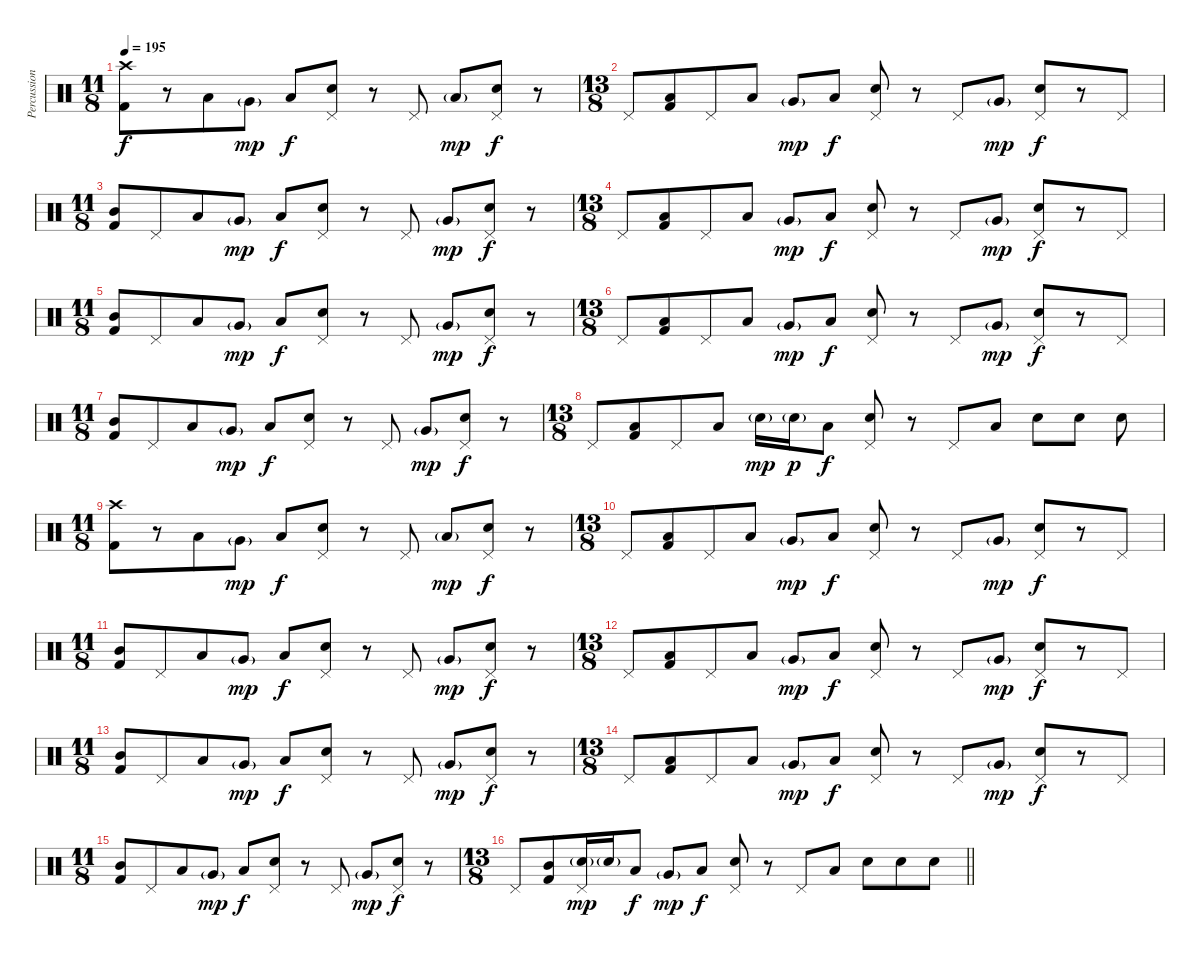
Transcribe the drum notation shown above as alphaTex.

\track ("Percussion" "Percussion") {instrument percussion bank 237}
\staff {score}
\articulation defaults
\ts (11 8)
\section ("" "")
\tempo 195
\clef neutral
\ks c
("Crash high (hit)" "Kick (hit) 2").8{dy f beam merge} r.8{beam merge} "Low Tom (hit)".8 "Very Low Tom (hit)"{g}.8{dy mp} "Low Floor Tom (hit)".8{dy f} ("Pedal Hi-Hat (hit)" "Electric Snare (hit)").8 r.8 "Pedal Hi-Hat (hit)".8 "Low Floor Tom (hit)"{g}.8{dy mp} ("Pedal Hi-Hat (hit)" "Electric Snare (hit)").8{dy f beam merge} r.8 |
\ts (13 8)
"Pedal Hi-Hat (hit)".8 ("Low Floor Tom (hit)" "Kick (hit) 2").8{beam merge} "Pedal Hi-Hat (hit)".8{beam merge} "Low Tom (hit)".8 "Very Low Tom (hit)"{g}.8{dy mp} "Low Floor Tom (hit)".8{dy f} ("Pedal Hi-Hat (hit)" "Electric Snare (hit)").8 r.8{beam merge} "Pedal Hi-Hat (hit)".8 "Very Low Tom (hit)"{g}.8{dy mp} ("Pedal Hi-Hat (hit)" "Electric Snare (hit)").8{dy f beam merge} r.8 "Pedal Hi-Hat (hit)".8 |
\ts (11 8)
("Mid Tom (hit)" "Kick (hit) 2").8{beam merge} "Pedal Hi-Hat (hit)".8{beam merge} "Low Tom (hit)".8 "Very Low Tom (hit)"{g}.8{dy mp} "Low Floor Tom (hit)".8{dy f} ("Pedal Hi-Hat (hit)" "Electric Snare (hit)").8 r.8{beam merge} "Pedal Hi-Hat (hit)".8 "Very Low Tom (hit)"{g}.8{dy mp} ("Pedal Hi-Hat (hit)" "Electric Snare (hit)").8{dy f beam merge} r.8 |
\ts (13 8)
"Pedal Hi-Hat (hit)".8 ("Low Floor Tom (hit)" "Kick (hit) 2").8{beam merge} "Pedal Hi-Hat (hit)".8{beam merge} "Low Tom (hit)".8 "Very Low Tom (hit)"{g}.8{dy mp} "Low Floor Tom (hit)".8{dy f} ("Pedal Hi-Hat (hit)" "Electric Snare (hit)").8 r.8{beam merge} "Pedal Hi-Hat (hit)".8 "Very Low Tom (hit)"{g}.8{dy mp} ("Pedal Hi-Hat (hit)" "Electric Snare (hit)").8{dy f beam merge} r.8 "Pedal Hi-Hat (hit)".8 |
\ts (11 8)
("Mid Tom (hit)" "Kick (hit) 2").8{beam merge} "Pedal Hi-Hat (hit)".8{beam merge} "Low Tom (hit)".8 "Very Low Tom (hit)"{g}.8{dy mp} "Low Floor Tom (hit)".8{dy f} ("Pedal Hi-Hat (hit)" "Electric Snare (hit)").8 r.8{beam merge} "Pedal Hi-Hat (hit)".8 "Very Low Tom (hit)"{g}.8{dy mp} ("Pedal Hi-Hat (hit)" "Electric Snare (hit)").8{dy f beam merge} r.8 |
\ts (13 8)
"Pedal Hi-Hat (hit)".8 ("Low Floor Tom (hit)" "Kick (hit) 2").8{beam merge} "Pedal Hi-Hat (hit)".8{beam merge} "Low Tom (hit)".8 "Very Low Tom (hit)"{g}.8{dy mp} "Low Floor Tom (hit)".8{dy f} ("Pedal Hi-Hat (hit)" "Electric Snare (hit)").8 r.8{beam merge} "Pedal Hi-Hat (hit)".8 "Very Low Tom (hit)"{g}.8{dy mp} ("Pedal Hi-Hat (hit)" "Electric Snare (hit)").8{dy f beam merge} r.8{beam merge} "Pedal Hi-Hat (hit)".8 |
\ts (11 8)
("Mid Tom (hit)" "Kick (hit) 2").8{beam merge} "Pedal Hi-Hat (hit)".8{beam merge} "Low Tom (hit)".8 "Very Low Tom (hit)"{g}.8{dy mp} "Low Floor Tom (hit)".8{dy f} ("Pedal Hi-Hat (hit)" "Electric Snare (hit)").8 r.8{beam merge} "Pedal Hi-Hat (hit)".8 "Very Low Tom (hit)"{g}.8{dy mp} ("Pedal Hi-Hat (hit)" "Electric Snare (hit)").8{dy f beam merge} r.8 |
\ts (13 8)
"Pedal Hi-Hat (hit)".8 ("Low Floor Tom (hit)" "Kick (hit) 2").8{beam merge} "Pedal Hi-Hat (hit)".8{beam merge} "Low Tom (hit)".8 "Electric Snare (hit)"{g}.16{dy mp} "Electric Snare (hit)"{g}.16{dy p} "Low Floor Tom (hit)".8{dy f} ("Pedal Hi-Hat (hit)" "Electric Snare (hit)").8 r.8{beam merge} "Pedal Hi-Hat (hit)".8 "Low Floor Tom (hit)".8 "Electric Snare (hit)".8{beam merge} "Electric Snare (hit)".8 "Electric Snare (hit)".8 |
\ts (11 8)
("Crash high (hit)" "Kick (hit) 2").8{beam merge} r.8{beam merge} "Low Tom (hit)".8 "Very Low Tom (hit)"{g}.8{dy mp} "Low Floor Tom (hit)".8{dy f} ("Pedal Hi-Hat (hit)" "Electric Snare (hit)").8 r.8 "Pedal Hi-Hat (hit)".8 "Low Floor Tom (hit)"{g}.8{dy mp} ("Pedal Hi-Hat (hit)" "Electric Snare (hit)").8{dy f beam merge} r.8 |
\ts (13 8)
"Pedal Hi-Hat (hit)".8 ("Low Floor Tom (hit)" "Kick (hit) 2").8{beam merge} "Pedal Hi-Hat (hit)".8{beam merge} "Low Tom (hit)".8 "Very Low Tom (hit)"{g}.8{dy mp} "Low Floor Tom (hit)".8{dy f} ("Pedal Hi-Hat (hit)" "Electric Snare (hit)").8 r.8{beam merge} "Pedal Hi-Hat (hit)".8 "Very Low Tom (hit)"{g}.8{dy mp} ("Pedal Hi-Hat (hit)" "Electric Snare (hit)").8{dy f beam merge} r.8 "Pedal Hi-Hat (hit)".8 |
\ts (11 8)
("Mid Tom (hit)" "Kick (hit) 2").8{beam merge} "Pedal Hi-Hat (hit)".8{beam merge} "Low Tom (hit)".8 "Very Low Tom (hit)"{g}.8{dy mp} "Low Floor Tom (hit)".8{dy f} ("Pedal Hi-Hat (hit)" "Electric Snare (hit)").8 r.8{beam merge} "Pedal Hi-Hat (hit)".8 "Very Low Tom (hit)"{g}.8{dy mp} ("Pedal Hi-Hat (hit)" "Electric Snare (hit)").8{dy f beam merge} r.8 |
\ts (13 8)
"Pedal Hi-Hat (hit)".8 ("Low Floor Tom (hit)" "Kick (hit) 2").8{beam merge} "Pedal Hi-Hat (hit)".8{beam merge} "Low Tom (hit)".8 "Very Low Tom (hit)"{g}.8{dy mp} "Low Floor Tom (hit)".8{dy f} ("Pedal Hi-Hat (hit)" "Electric Snare (hit)").8 r.8{beam merge} "Pedal Hi-Hat (hit)".8 "Very Low Tom (hit)"{g}.8{dy mp} ("Pedal Hi-Hat (hit)" "Electric Snare (hit)").8{dy f beam merge} r.8 "Pedal Hi-Hat (hit)".8 |
\ts (11 8)
("Mid Tom (hit)" "Kick (hit) 2").8{beam merge} "Pedal Hi-Hat (hit)".8{beam merge} "Low Tom (hit)".8 "Very Low Tom (hit)"{g}.8{dy mp} "Low Floor Tom (hit)".8{dy f} ("Pedal Hi-Hat (hit)" "Electric Snare (hit)").8 r.8{beam merge} "Pedal Hi-Hat (hit)".8 "Very Low Tom (hit)"{g}.8{dy mp} ("Pedal Hi-Hat (hit)" "Electric Snare (hit)").8{dy f beam merge} r.8 |
\ts (13 8)
"Pedal Hi-Hat (hit)".8 ("Low Floor Tom (hit)" "Kick (hit) 2").8{beam merge} "Pedal Hi-Hat (hit)".8{beam merge} "Low Tom (hit)".8 "Very Low Tom (hit)"{g}.8{dy mp} "Low Floor Tom (hit)".8{dy f} ("Pedal Hi-Hat (hit)" "Electric Snare (hit)").8 r.8{beam merge} "Pedal Hi-Hat (hit)".8 "Very Low Tom (hit)"{g}.8{dy mp} ("Pedal Hi-Hat (hit)" "Electric Snare (hit)").8{dy f beam merge} r.8 "Pedal Hi-Hat (hit)".8 |
\ts (11 8)
("Mid Tom (hit)" "Kick (hit) 2").8{beam merge} "Pedal Hi-Hat (hit)".8{beam merge} "Low Tom (hit)".8 "Very Low Tom (hit)"{g}.8{dy mp} "Low Floor Tom (hit)".8{dy f} ("Pedal Hi-Hat (hit)" "Electric Snare (hit)").8 r.8{beam merge} "Pedal Hi-Hat (hit)".8 "Very Low Tom (hit)"{g}.8{dy mp} ("Pedal Hi-Hat (hit)" "Electric Snare (hit)").8{dy f beam merge} r.8 |
\ts (13 8)
\barLineRight lightlight "Pedal Hi-Hat (hit)".8
("Mid Tom (hit)" "Kick (hit) 2").8{beam merge} ("Pedal Hi-Hat (hit)" "Electric Snare (hit)"{g}).16{dy mp} "Electric Snare (hit)"{g}.16{beam merge} "Low Tom (hit)".8{dy f} "Very Low Tom (hit)"{g}.8{dy mp} "Low Floor Tom (hit)".8{dy f} ("Pedal Hi-Hat (hit)" "Electric Snare (hit)").8 r.8{beam merge} "Pedal Hi-Hat (hit)".8 "Low Floor Tom (hit)".8 "Electric Snare (hit)".8{beam merge} "Electric Snare (hit)".8{beam merge} "Electric Snare (hit)".8
